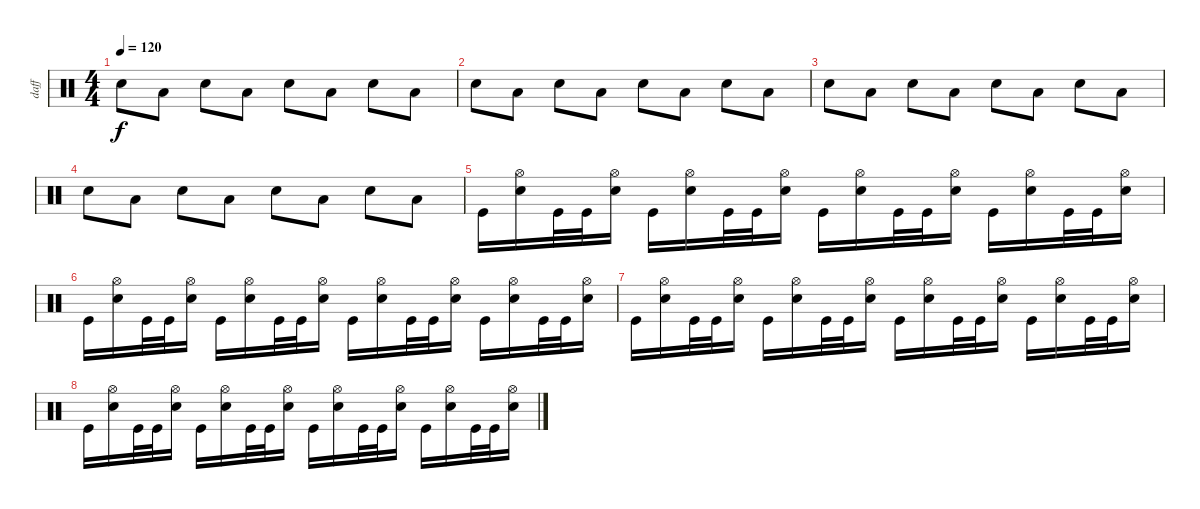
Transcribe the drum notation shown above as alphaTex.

\track ("daff" "daff") {instrument percussion}
\staff {score}
\articulation defaults
\ts (4 4)
\tempo 120
\clef neutral
\ks c "Electric Snare (hit)".8{dy f} "Low Tom (hit)".8 "Electric Snare (hit)".8 "Low Tom (hit)".8 "Electric Snare (hit)".8 "Low Tom (hit)".8 "Electric Snare (hit)".8 "Low Tom (hit)".8
|
"Electric Snare (hit)".8 "Low Tom (hit)".8 "Electric Snare (hit)".8 "Low Tom (hit)".8 "Electric Snare (hit)".8 "Low Tom (hit)".8 "Electric Snare (hit)".8 "Low Tom (hit)".8 |
"Electric Snare (hit)".8 "Low Tom (hit)".8 "Electric Snare (hit)".8 "Low Tom (hit)".8 "Electric Snare (hit)".8 "Low Tom (hit)".8 "Electric Snare (hit)".8 "Low Tom (hit)".8 |
"Electric Snare (hit)".8 "Low Tom (hit)".8 "Electric Snare (hit)".8 "Low Tom (hit)".8 "Electric Snare (hit)".8 "Low Tom (hit)".8 "Electric Snare (hit)".8 "Low Tom (hit)".8 |
"Kick (hit)".16 ("Hi-Hat (open)" "Electric Snare (hit)").16 "Kick (hit)".32 "Kick (hit)".32 ("Hi-Hat (open)" "Electric Snare (hit)").16 "Kick (hit)".16 ("Hi-Hat (open)" "Electric Snare (hit)").16 "Kick (hit)".32 "Kick (hit)".32 ("Hi-Hat (open)" "Electric Snare (hit)").16 "Kick (hit)".16 ("Hi-Hat (open)" "Electric Snare (hit)").16 "Kick (hit)".32 "Kick (hit)".32 ("Hi-Hat (open)" "Electric Snare (hit)").16 "Kick (hit)".16 ("Hi-Hat (open)" "Electric Snare (hit)").16 "Kick (hit)".32 "Kick (hit)".32 ("Hi-Hat (open)" "Electric Snare (hit)").16 |
"Kick (hit)".16 ("Hi-Hat (open)" "Electric Snare (hit)").16 "Kick (hit)".32 "Kick (hit)".32 ("Hi-Hat (open)" "Electric Snare (hit)").16 "Kick (hit)".16 ("Hi-Hat (open)" "Electric Snare (hit)").16 "Kick (hit)".32 "Kick (hit)".32 ("Hi-Hat (open)" "Electric Snare (hit)").16 "Kick (hit)".16 ("Hi-Hat (open)" "Electric Snare (hit)").16 "Kick (hit)".32 "Kick (hit)".32 ("Hi-Hat (open)" "Electric Snare (hit)").16 "Kick (hit)".16 ("Hi-Hat (open)" "Electric Snare (hit)").16 "Kick (hit)".32 "Kick (hit)".32 ("Hi-Hat (open)" "Electric Snare (hit)").16 |
"Kick (hit)".16 ("Hi-Hat (open)" "Electric Snare (hit)").16 "Kick (hit)".32 "Kick (hit)".32 ("Hi-Hat (open)" "Electric Snare (hit)").16 "Kick (hit)".16 ("Hi-Hat (open)" "Electric Snare (hit)").16 "Kick (hit)".32 "Kick (hit)".32 ("Hi-Hat (open)" "Electric Snare (hit)").16 "Kick (hit)".16 ("Hi-Hat (open)" "Electric Snare (hit)").16 "Kick (hit)".32 "Kick (hit)".32 ("Hi-Hat (open)" "Electric Snare (hit)").16 "Kick (hit)".16 ("Hi-Hat (open)" "Electric Snare (hit)").16 "Kick (hit)".32 "Kick (hit)".32 ("Hi-Hat (open)" "Electric Snare (hit)").16 |
"Kick (hit)".16 ("Hi-Hat (open)" "Electric Snare (hit)").16 "Kick (hit)".32 "Kick (hit)".32 ("Hi-Hat (open)" "Electric Snare (hit)").16 "Kick (hit)".16 ("Hi-Hat (open)" "Electric Snare (hit)").16 "Kick (hit)".32 "Kick (hit)".32 ("Hi-Hat (open)" "Electric Snare (hit)").16 "Kick (hit)".16 ("Hi-Hat (open)" "Electric Snare (hit)").16 "Kick (hit)".32 "Kick (hit)".32 ("Hi-Hat (open)" "Electric Snare (hit)").16 "Kick (hit)".16 ("Hi-Hat (open)" "Electric Snare (hit)").16 "Kick (hit)".32 "Kick (hit)".32 ("Hi-Hat (open)" "Electric Snare (hit)").16
